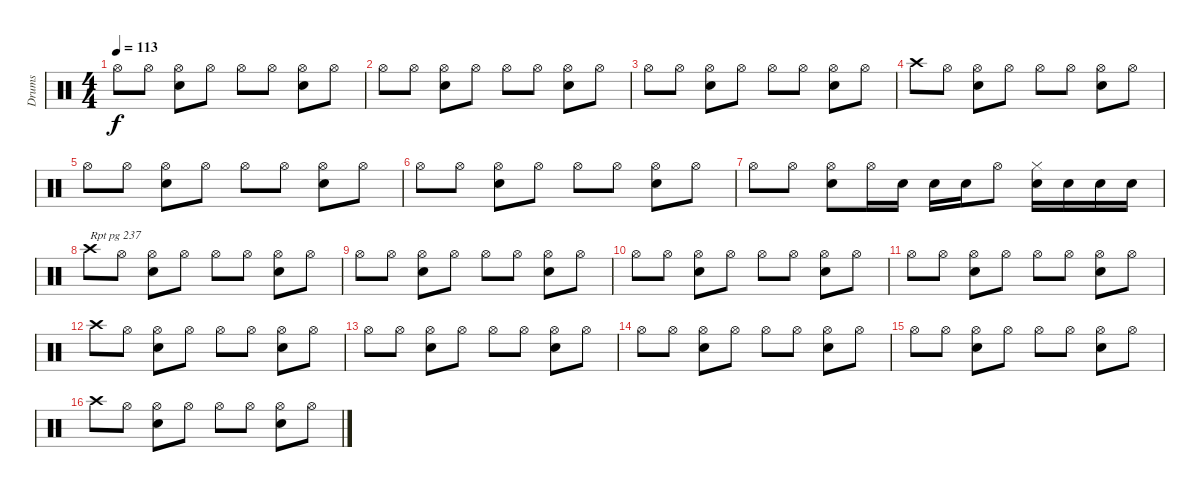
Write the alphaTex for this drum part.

\track ("Drums" "Drums") {instrument percussion}
\staff {score}
\articulation defaults
\ts (4 4)
\tempo 113
\clef neutral
\ks c "Hi-Hat (open)".8{dy f} "Hi-Hat (open)".8
("Hi-Hat (open)" "Snare (hit) 2").8 "Hi-Hat (open)".8 "Hi-Hat (open)".8 "Hi-Hat (open)".8 ("Hi-Hat (open)" "Snare (hit) 2").8 "Hi-Hat (open)".8 |
"Hi-Hat (open)".8 "Hi-Hat (open)".8 ("Hi-Hat (open)" "Snare (hit) 2").8 "Hi-Hat (open)".8 "Hi-Hat (open)".8 "Hi-Hat (open)".8 ("Hi-Hat (open)" "Snare (hit) 2").8 "Hi-Hat (open)".8 |
"Hi-Hat (open)".8 "Hi-Hat (open)".8 ("Hi-Hat (open)" "Snare (hit) 2").8 "Hi-Hat (open)".8 "Hi-Hat (open)".8 "Hi-Hat (open)".8 ("Hi-Hat (open)" "Snare (hit) 2").8 "Hi-Hat (open)".8 |
"Crash high (hit)".8 "Hi-Hat (open)".8 ("Hi-Hat (open)" "Snare (hit) 2").8 "Hi-Hat (open)".8 "Hi-Hat (open)".8 "Hi-Hat (open)".8 ("Hi-Hat (open)" "Snare (hit) 2").8 "Hi-Hat (open)".8 |
"Hi-Hat (open)".8 "Hi-Hat (open)".8 ("Hi-Hat (open)" "Snare (hit) 2").8 "Hi-Hat (open)".8 "Hi-Hat (open)".8 "Hi-Hat (open)".8 ("Hi-Hat (open)" "Snare (hit) 2").8 "Hi-Hat (open)".8 |
"Hi-Hat (open)".8 "Hi-Hat (open)".8 ("Hi-Hat (open)" "Snare (hit) 2").8 "Hi-Hat (open)".8 "Hi-Hat (open)".8 "Hi-Hat (open)".8 ("Hi-Hat (open)" "Snare (hit) 2").8 "Hi-Hat (open)".8 |
"Hi-Hat (open)".8 "Hi-Hat (open)".8 ("Hi-Hat (open)" "Snare (hit) 2").8 "Hi-Hat (open)".16 "Snare (hit) 2".16 "Snare (hit) 2".16 "Snare (hit) 2".16 "Hi-Hat (open)".8 ("Hi-Hat (closed)" "Snare (hit) 2").16 "Snare (hit) 2".16 "Snare (hit) 2".16 "Snare (hit) 2".16 |
"Crash high (hit)".8{txt "Rpt pg 237"} "Hi-Hat (open)".8 ("Hi-Hat (open)" "Snare (hit) 2").8 "Hi-Hat (open)".8 "Hi-Hat (open)".8 "Hi-Hat (open)".8 ("Hi-Hat (open)" "Snare (hit) 2").8 "Hi-Hat (open)".8 |
"Hi-Hat (open)".8 "Hi-Hat (open)".8 ("Hi-Hat (open)" "Snare (hit) 2").8 "Hi-Hat (open)".8 "Hi-Hat (open)".8 "Hi-Hat (open)".8 ("Hi-Hat (open)" "Snare (hit) 2").8 "Hi-Hat (open)".8 |
"Hi-Hat (open)".8 "Hi-Hat (open)".8 ("Hi-Hat (open)" "Snare (hit) 2").8 "Hi-Hat (open)".8 "Hi-Hat (open)".8 "Hi-Hat (open)".8 ("Hi-Hat (open)" "Snare (hit) 2").8 "Hi-Hat (open)".8 |
"Hi-Hat (open)".8 "Hi-Hat (open)".8 ("Hi-Hat (open)" "Snare (hit) 2").8 "Hi-Hat (open)".8 "Hi-Hat (open)".8 "Hi-Hat (open)".8 ("Hi-Hat (open)" "Snare (hit) 2").8 "Hi-Hat (open)".8 |
"Crash high (hit)".8 "Hi-Hat (open)".8 ("Hi-Hat (open)" "Snare (hit) 2").8 "Hi-Hat (open)".8 "Hi-Hat (open)".8 "Hi-Hat (open)".8 ("Hi-Hat (open)" "Snare (hit) 2").8 "Hi-Hat (open)".8 |
"Hi-Hat (open)".8 "Hi-Hat (open)".8 ("Hi-Hat (open)" "Snare (hit) 2").8 "Hi-Hat (open)".8 "Hi-Hat (open)".8 "Hi-Hat (open)".8 ("Hi-Hat (open)" "Snare (hit) 2").8 "Hi-Hat (open)".8 |
"Hi-Hat (open)".8 "Hi-Hat (open)".8 ("Hi-Hat (open)" "Snare (hit) 2").8 "Hi-Hat (open)".8 "Hi-Hat (open)".8 "Hi-Hat (open)".8 ("Hi-Hat (open)" "Snare (hit) 2").8 "Hi-Hat (open)".8 |
"Hi-Hat (open)".8 "Hi-Hat (open)".8 ("Hi-Hat (open)" "Snare (hit) 2").8 "Hi-Hat (open)".8 "Hi-Hat (open)".8 "Hi-Hat (open)".8 ("Hi-Hat (open)" "Snare (hit) 2").8 "Hi-Hat (open)".8 |
"Crash high (hit)".8 "Hi-Hat (open)".8 ("Hi-Hat (open)" "Snare (hit) 2").8 "Hi-Hat (open)".8 "Hi-Hat (open)".8 "Hi-Hat (open)".8 ("Hi-Hat (open)" "Snare (hit) 2").8 "Hi-Hat (open)".8
